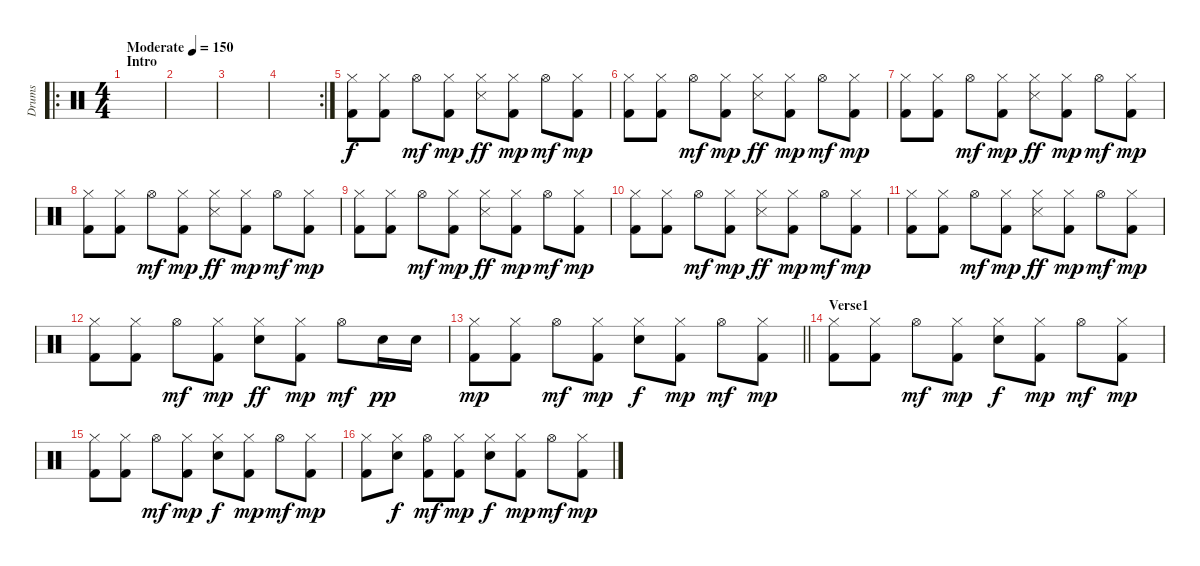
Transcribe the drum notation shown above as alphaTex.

\track ("Drums" "Drums") {instrument percussion}
\staff {score}
\articulation defaults
\ro
\ts (4 4)
\section ("" "Intro")
\tempo (150 "Moderate")
\clef neutral
\ks c
|
|
|
\rc 2
|
("Hi-Hat (closed)" "Kick (hit) 2").8 ("Hi-Hat (closed)" "Kick (hit) 2").8 "Hi-Hat (open)".8{dy mf} ("Hi-Hat (closed)" "Kick (hit) 2").8{dy mp} ("Hi-Hat (closed)" "Snare (side stick) 3").8{dy ff} ("Hi-Hat (closed)" "Kick (hit) 2").8{dy mp} "Hi-Hat (open)".8{dy mf} ("Hi-Hat (closed)" "Kick (hit) 2").8{dy mp} |
("Hi-Hat (closed)" "Kick (hit) 2").8 ("Hi-Hat (closed)" "Kick (hit) 2").8 "Hi-Hat (open)".8{dy mf} ("Hi-Hat (closed)" "Kick (hit) 2").8{dy mp} ("Hi-Hat (closed)" "Snare (side stick) 3").8{dy ff} ("Hi-Hat (closed)" "Kick (hit) 2").8{dy mp} "Hi-Hat (open)".8{dy mf} ("Hi-Hat (closed)" "Kick (hit) 2").8{dy mp} |
("Hi-Hat (closed)" "Kick (hit) 2").8 ("Hi-Hat (closed)" "Kick (hit) 2").8 "Hi-Hat (open)".8{dy mf} ("Hi-Hat (closed)" "Kick (hit) 2").8{dy mp} ("Hi-Hat (closed)" "Snare (side stick) 3").8{dy ff} ("Hi-Hat (closed)" "Kick (hit) 2").8{dy mp} "Hi-Hat (open)".8{dy mf} ("Hi-Hat (closed)" "Kick (hit) 2").8{dy mp} |
("Hi-Hat (closed)" "Kick (hit) 2").8 ("Hi-Hat (closed)" "Kick (hit) 2").8 "Hi-Hat (open)".8{dy mf} ("Hi-Hat (closed)" "Kick (hit) 2").8{dy mp} ("Hi-Hat (closed)" "Snare (side stick) 3").8{dy ff} ("Hi-Hat (closed)" "Kick (hit) 2").8{dy mp} "Hi-Hat (open)".8{dy mf} ("Hi-Hat (closed)" "Kick (hit) 2").8{dy mp} |
("Hi-Hat (closed)" "Kick (hit) 2").8 ("Hi-Hat (closed)" "Kick (hit) 2").8 "Hi-Hat (open)".8{dy mf} ("Hi-Hat (closed)" "Kick (hit) 2").8{dy mp} ("Hi-Hat (closed)" "Snare (side stick) 3").8{dy ff} ("Hi-Hat (closed)" "Kick (hit) 2").8{dy mp} "Hi-Hat (open)".8{dy mf} ("Hi-Hat (closed)" "Kick (hit) 2").8{dy mp} |
("Hi-Hat (closed)" "Kick (hit) 2").8 ("Hi-Hat (closed)" "Kick (hit) 2").8 "Hi-Hat (open)".8{dy mf} ("Hi-Hat (closed)" "Kick (hit) 2").8{dy mp} ("Hi-Hat (closed)" "Snare (side stick) 3").8{dy ff} ("Hi-Hat (closed)" "Kick (hit) 2").8{dy mp} "Hi-Hat (open)".8{dy mf} ("Hi-Hat (closed)" "Kick (hit) 2").8{dy mp} |
("Hi-Hat (closed)" "Kick (hit) 2").8 ("Hi-Hat (closed)" "Kick (hit) 2").8 "Hi-Hat (open)".8{dy mf} ("Hi-Hat (closed)" "Kick (hit) 2").8{dy mp} ("Hi-Hat (closed)" "Snare (side stick) 3").8{dy ff} ("Hi-Hat (closed)" "Kick (hit) 2").8{dy mp} "Hi-Hat (open)".8{dy mf} ("Hi-Hat (closed)" "Kick (hit) 2").8{dy mp} |
("Hi-Hat (closed)" "Kick (hit) 2").8 ("Hi-Hat (closed)" "Kick (hit) 2").8 "Hi-Hat (open)".8{dy mf} ("Hi-Hat (closed)" "Kick (hit) 2").8{dy mp} ("Hi-Hat (closed)" "Electric Snare (hit)").8{dy ff} ("Hi-Hat (closed)" "Kick (hit) 2").8{dy mp} "Hi-Hat (open)".8{dy mf} "Electric Snare (hit)".16{dy pp} "Electric Snare (hit)".16 |
\barLineRight lightlight
("Hi-Hat (closed)" "Kick (hit) 2").8{dy mp} ("Hi-Hat (closed)" "Kick (hit) 2").8 "Hi-Hat (open)".8{dy mf} ("Hi-Hat (closed)" "Kick (hit) 2").8{dy mp} ("Hi-Hat (closed)" "Electric Snare (hit)").8{dy f} ("Hi-Hat (closed)" "Kick (hit) 2").8{dy mp} "Hi-Hat (open)".8{dy mf} ("Hi-Hat (closed)" "Kick (hit) 2").8{dy mp} |
\section ("" "Verse1")
("Hi-Hat (closed)" "Kick (hit) 2").8 ("Hi-Hat (closed)" "Kick (hit) 2").8 "Hi-Hat (open)".8{dy mf} ("Hi-Hat (closed)" "Kick (hit) 2").8{dy mp} ("Hi-Hat (closed)" "Electric Snare (hit)").8{dy f} ("Hi-Hat (closed)" "Kick (hit) 2").8{dy mp} "Hi-Hat (open)".8{dy mf} ("Hi-Hat (closed)" "Kick (hit) 2").8{dy mp} |
("Hi-Hat (closed)" "Kick (hit) 2").8 ("Hi-Hat (closed)" "Kick (hit) 2").8 "Hi-Hat (open)".8{dy mf} ("Hi-Hat (closed)" "Kick (hit) 2").8{dy mp} ("Hi-Hat (closed)" "Electric Snare (hit)").8{dy f} ("Hi-Hat (closed)" "Kick (hit) 2").8{dy mp} "Hi-Hat (open)".8{dy mf} ("Hi-Hat (closed)" "Kick (hit) 2").8{dy mp} |
("Hi-Hat (closed)" "Kick (hit) 2").8 ("Hi-Hat (closed)" "Electric Snare (hit)").8{dy f} ("Hi-Hat (open)" "Kick (hit) 2").8{dy mf} ("Hi-Hat (closed)" "Kick (hit) 2").8{dy mp} ("Hi-Hat (closed)" "Electric Snare (hit)").8{dy f} ("Hi-Hat (closed)" "Kick (hit) 2").8{dy mp} "Hi-Hat (open)".8{dy mf} ("Hi-Hat (closed)" "Kick (hit) 2").8{dy mp}
